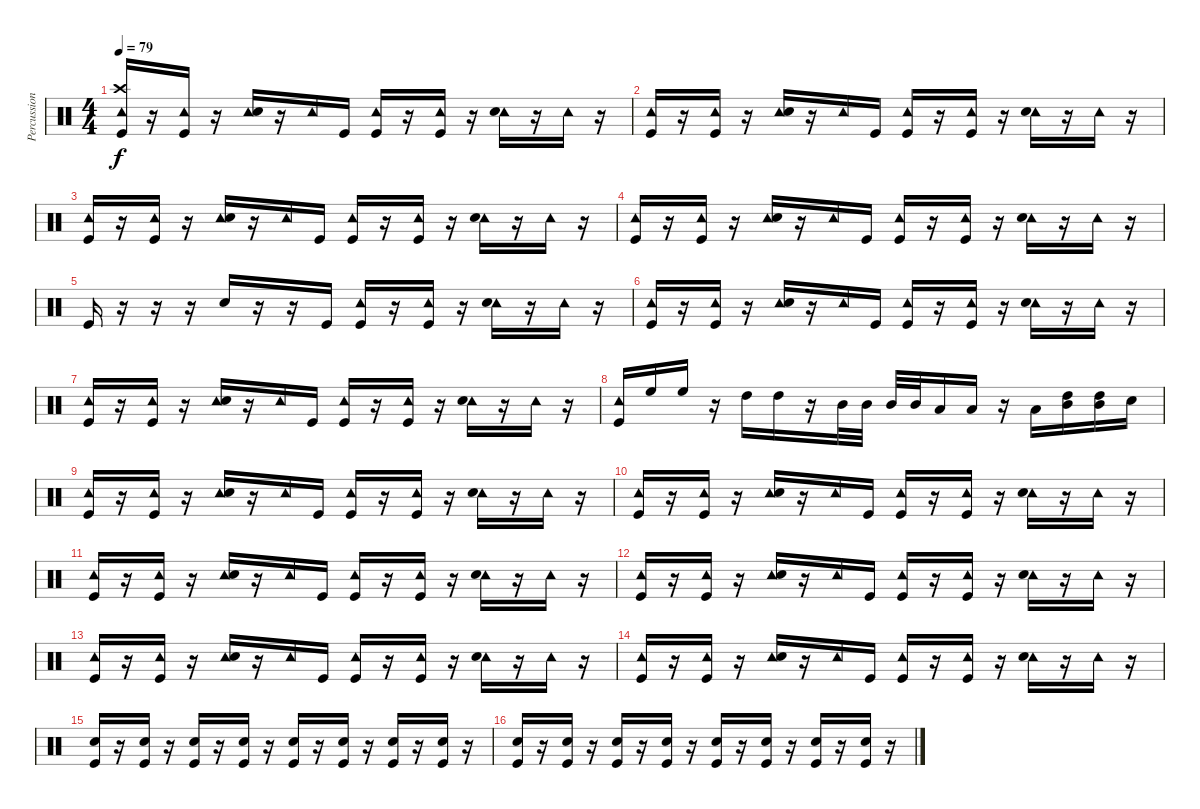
\track ("Percussions" "Percussion") {instrument percussion}
\staff {score}
\articulation defaults
\ts (4 4)
\tempo 79
\clef neutral
\ks c
("Tambourine (hit)" "Crash high (hit)" "Kick (hit)").16{dy f} r.16 ("Tambourine (hit)" "Kick (hit)").16 r.16 ("Tambourine (hit)" "Electric Snare (hit)").16 r.16 "Tambourine (hit)".16 "Kick (hit)".16 ("Tambourine (hit)" "Kick (hit)").16 r.16 ("Tambourine (hit)" "Kick (hit)").16 r.16 ("Tambourine (hit)" "Electric Snare (hit)").16 r.16 "Tambourine (hit)".16 r.16 |
("Tambourine (hit)" "Kick (hit)").16 r.16 ("Tambourine (hit)" "Kick (hit)").16 r.16 ("Tambourine (hit)" "Electric Snare (hit)").16 r.16 "Tambourine (hit)".16 "Kick (hit)".16 ("Tambourine (hit)" "Kick (hit)").16 r.16 ("Tambourine (hit)" "Kick (hit)").16 r.16 ("Tambourine (hit)" "Electric Snare (hit)").16 r.16 "Tambourine (hit)".16 r.16 |
("Tambourine (hit)" "Kick (hit)").16 r.16 ("Tambourine (hit)" "Kick (hit)").16 r.16 ("Tambourine (hit)" "Electric Snare (hit)").16 r.16 "Tambourine (hit)".16 "Kick (hit)".16 ("Tambourine (hit)" "Kick (hit)").16 r.16 ("Tambourine (hit)" "Kick (hit)").16 r.16 ("Tambourine (hit)" "Electric Snare (hit)").16 r.16 "Tambourine (hit)".16 r.16 |
("Tambourine (hit)" "Kick (hit)").16 r.16 ("Tambourine (hit)" "Kick (hit)").16 r.16 ("Tambourine (hit)" "Electric Snare (hit)").16 r.16 "Tambourine (hit)".16 "Kick (hit)".16 ("Tambourine (hit)" "Kick (hit)").16 r.16 ("Tambourine (hit)" "Kick (hit)").16 r.16 ("Tambourine (hit)" "Electric Snare (hit)").16 r.16 "Tambourine (hit)".16 r.16 |
"Kick (hit)".16 r.16 r.16 r.16 "Electric Snare (hit)".16 r.16 r.16 "Kick (hit)".16 ("Tambourine (hit)" "Kick (hit)").16 r.16 ("Tambourine (hit)" "Kick (hit)").16 r.16 ("Tambourine (hit)" "Electric Snare (hit)").16 r.16 "Tambourine (hit)".16 r.16 |
("Tambourine (hit)" "Kick (hit)").16 r.16 ("Tambourine (hit)" "Kick (hit)").16 r.16 ("Tambourine (hit)" "Electric Snare (hit)").16 r.16 "Tambourine (hit)".16 "Kick (hit)".16 ("Tambourine (hit)" "Kick (hit)").16 r.16 ("Tambourine (hit)" "Kick (hit)").16 r.16 ("Tambourine (hit)" "Electric Snare (hit)").16 r.16 "Tambourine (hit)".16 r.16 |
("Tambourine (hit)" "Kick (hit)").16 r.16 ("Tambourine (hit)" "Kick (hit)").16 r.16 ("Tambourine (hit)" "Electric Snare (hit)").16 r.16 "Tambourine (hit)".16 "Kick (hit)".16 ("Tambourine (hit)" "Kick (hit)").16 r.16 ("Tambourine (hit)" "Kick (hit)").16 r.16 ("Tambourine (hit)" "Electric Snare (hit)").16 r.16 "Tambourine (hit)".16 r.16 |
("Tambourine (hit)" "Kick (hit)").16 "High Floor Tom (hit)".16 "High Floor Tom (hit)".16 r.16 "High Tom (hit)".16 "High Tom (hit)".16 r.16 "Mid Tom (hit)".32 "Mid Tom (hit)".32 "Mid Tom (hit)".32 "Mid Tom (hit)".32 "Low Tom (hit)".16 "Low Tom (hit)".16 r.16 "Low Floor Tom (hit)".16 ("Mid Tom (hit)" "High Tom (hit)").16 ("High Tom (hit)" "Mid Tom (hit)").16 "Electric Snare (hit)".16 |
("Tambourine (hit)" "Kick (hit)").16 r.16 ("Tambourine (hit)" "Kick (hit)").16 r.16 ("Tambourine (hit)" "Electric Snare (hit)").16 r.16 "Tambourine (hit)".16 "Kick (hit)".16 ("Tambourine (hit)" "Kick (hit)").16 r.16 ("Tambourine (hit)" "Kick (hit)").16 r.16 ("Tambourine (hit)" "Electric Snare (hit)").16 r.16 "Tambourine (hit)".16 r.16 |
("Tambourine (hit)" "Kick (hit)").16 r.16 ("Tambourine (hit)" "Kick (hit)").16 r.16 ("Tambourine (hit)" "Electric Snare (hit)").16 r.16 "Tambourine (hit)".16 "Kick (hit)".16 ("Tambourine (hit)" "Kick (hit)").16 r.16 ("Tambourine (hit)" "Kick (hit)").16 r.16 ("Tambourine (hit)" "Electric Snare (hit)").16 r.16 "Tambourine (hit)".16 r.16 |
("Tambourine (hit)" "Kick (hit)").16 r.16 ("Tambourine (hit)" "Kick (hit)").16 r.16 ("Tambourine (hit)" "Electric Snare (hit)").16 r.16 "Tambourine (hit)".16 "Kick (hit)".16 ("Tambourine (hit)" "Kick (hit)").16 r.16 ("Tambourine (hit)" "Kick (hit)").16 r.16 ("Tambourine (hit)" "Electric Snare (hit)").16 r.16 "Tambourine (hit)".16 r.16 |
("Tambourine (hit)" "Kick (hit)").16 r.16 ("Tambourine (hit)" "Kick (hit)").16 r.16 ("Tambourine (hit)" "Electric Snare (hit)").16 r.16 "Tambourine (hit)".16 "Kick (hit)".16 ("Tambourine (hit)" "Kick (hit)").16 r.16 ("Tambourine (hit)" "Kick (hit)").16 r.16 ("Tambourine (hit)" "Electric Snare (hit)").16 r.16 "Tambourine (hit)".16 r.16 |
("Tambourine (hit)" "Kick (hit)").16 r.16 ("Tambourine (hit)" "Kick (hit)").16 r.16 ("Tambourine (hit)" "Electric Snare (hit)").16 r.16 "Tambourine (hit)".16 "Kick (hit)".16 ("Tambourine (hit)" "Kick (hit)").16 r.16 ("Tambourine (hit)" "Kick (hit)").16 r.16 ("Tambourine (hit)" "Electric Snare (hit)").16 r.16 "Tambourine (hit)".16 r.16 |
("Tambourine (hit)" "Kick (hit)").16 r.16 ("Tambourine (hit)" "Kick (hit)").16 r.16 ("Tambourine (hit)" "Electric Snare (hit)").16 r.16 "Tambourine (hit)".16 "Kick (hit)".16 ("Tambourine (hit)" "Kick (hit)").16 r.16 ("Tambourine (hit)" "Kick (hit)").16 r.16 ("Tambourine (hit)" "Electric Snare (hit)").16 r.16 "Tambourine (hit)".16 r.16 |
("Electric Snare (hit)" "Kick (hit)").16 r.16 ("Electric Snare (hit)" "Kick (hit)").16 r.16 ("Electric Snare (hit)" "Kick (hit)").16 r.16 ("Electric Snare (hit)" "Kick (hit)").16 r.16 ("Electric Snare (hit)" "Kick (hit)").16 r.16 ("Electric Snare (hit)" "Kick (hit)").16 r.16 ("Electric Snare (hit)" "Kick (hit)").16 r.16 ("Electric Snare (hit)" "Kick (hit)").16 r.16 |
("Electric Snare (hit)" "Kick (hit)").16 r.16 ("Electric Snare (hit)" "Kick (hit)").16 r.16 ("Electric Snare (hit)" "Kick (hit)").16 r.16 ("Electric Snare (hit)" "Kick (hit)").16 r.16 ("Electric Snare (hit)" "Kick (hit)").16 r.16 ("Electric Snare (hit)" "Kick (hit)").16 r.16 ("Electric Snare (hit)" "Kick (hit)").16 r.16 ("Electric Snare (hit)" "Kick (hit)").16 r.16
